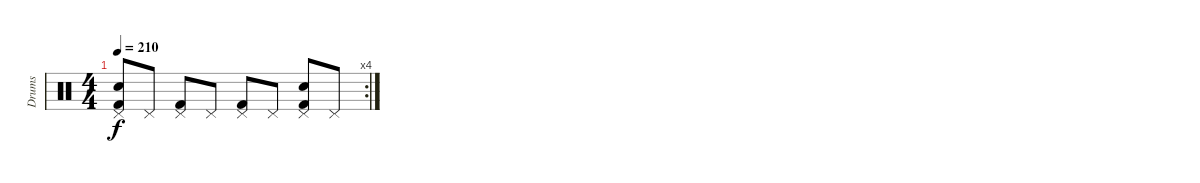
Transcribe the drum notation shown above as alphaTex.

\track ("Drums" "Drums") {instrument percussion}
\staff {score}
\articulation defaults
\rc 4
\ts (4 4)
\tempo 210
\clef neutral
\ks c
("Kick (hit) 2" "Pedal Hi-Hat (hit)" "Snare (hit) 2").8{dy f} "Pedal Hi-Hat (hit)".8 ("Kick (hit) 2" "Pedal Hi-Hat (hit)").8 "Pedal Hi-Hat (hit)".8 ("Kick (hit) 2" "Pedal Hi-Hat (hit)").8 "Pedal Hi-Hat (hit)".8 ("Kick (hit) 2" "Pedal Hi-Hat (hit)" "Snare (hit) 2").8 "Pedal Hi-Hat (hit)".8
